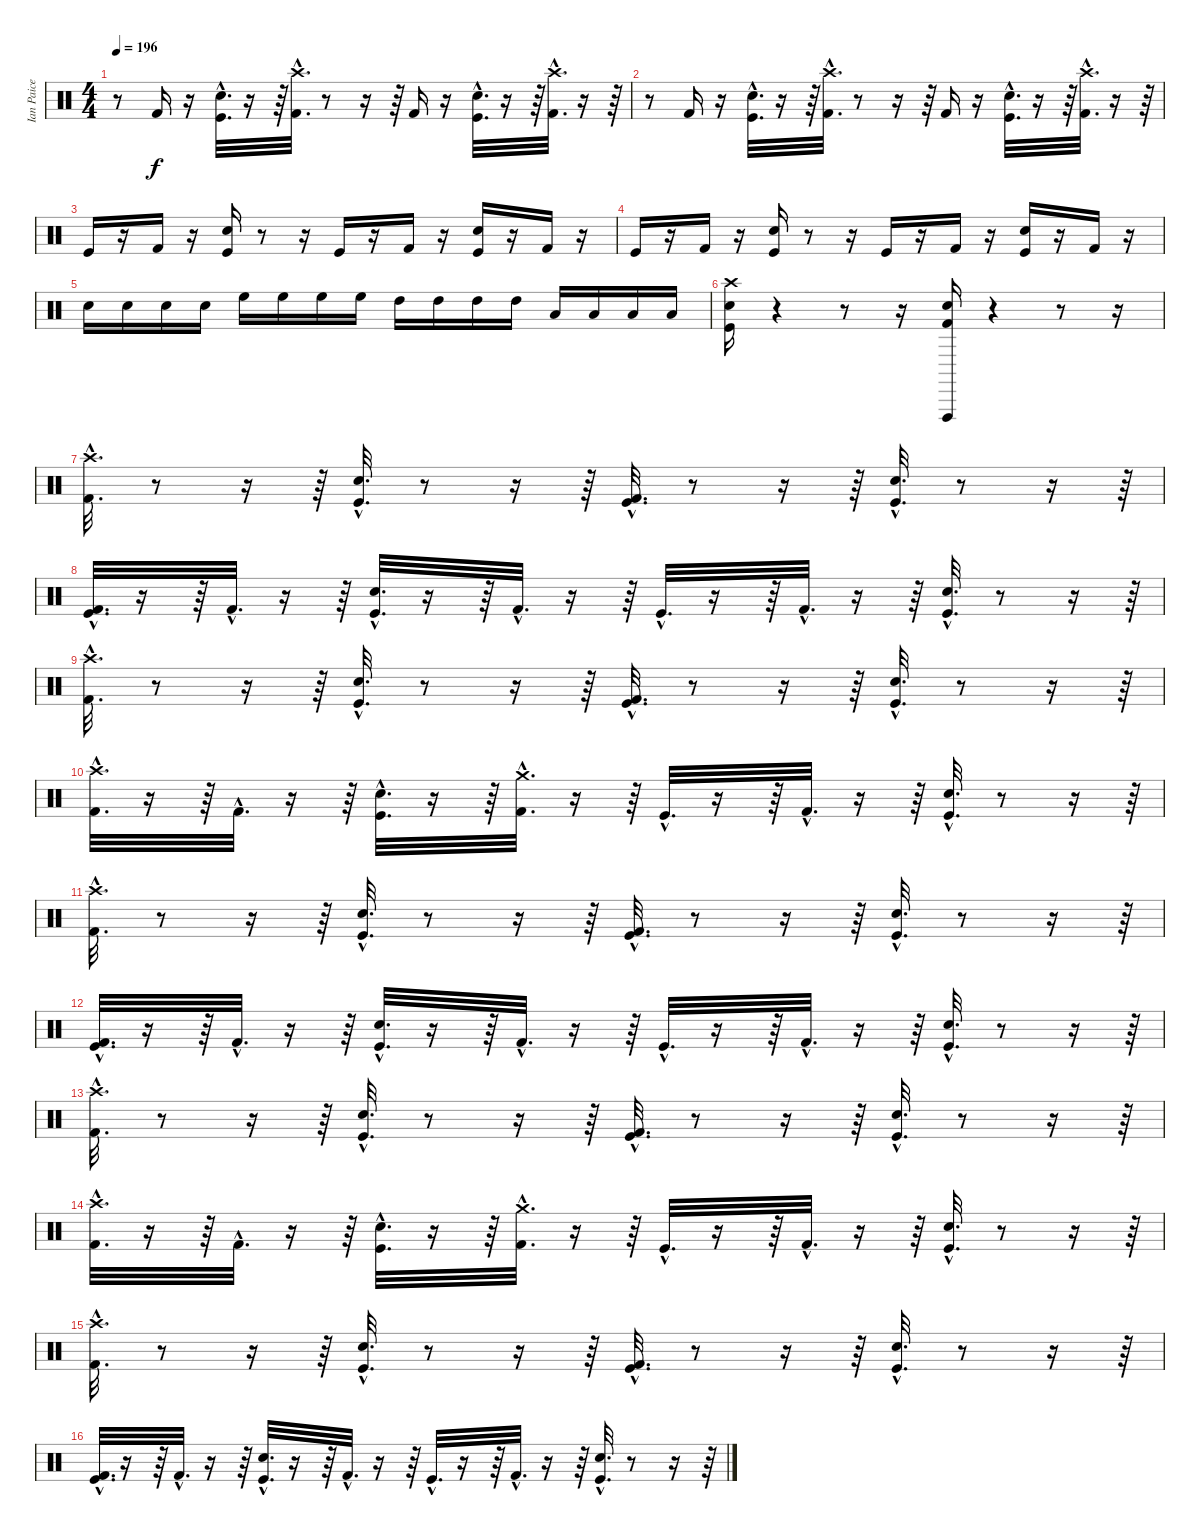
\track ("Ian Paice" "Ian Paice") {instrument percussion}
\staff {score}
\articulation defaults
\ts (4 4)
\tempo 196
\clef neutral
\ks c
r.8{dy f} "Kick (hit) 2".16 r.16 ("Kick (hit)"{hac} "Snare (hit) 2"{hac}).32{d} r.16 r.64 ("Kick (hit) 2"{hac} "Crash high (hit)"{hac}).32{d} r.8 r.16 r.64 "Kick (hit) 2".16 r.16 ("Kick (hit)"{hac} "Snare (hit) 2"{hac}).32{d} r.16 r.64 ("Kick (hit) 2"{hac} "Crash high (hit)"{hac}).32{d} r.16 r.64 |
r.8 "Kick (hit) 2".16 r.16 ("Kick (hit)"{hac} "Snare (hit) 2"{hac}).32{d} r.16 r.64 ("Kick (hit) 2"{hac} "Crash high (hit)"{hac}).32{d} r.8 r.16 r.64 "Kick (hit) 2".16 r.16 ("Kick (hit)"{hac} "Snare (hit) 2"{hac}).32{d} r.16 r.64 ("Kick (hit) 2"{hac} "Crash high (hit)"{hac}).32{d} r.16 r.64 |
"Kick (hit)".16 r.16 "Kick (hit) 2".16 r.16 ("Kick (hit)" "Snare (hit) 2").16 r.8 r.16 "Kick (hit)".16 r.16 "Kick (hit) 2".16 r.16 ("Kick (hit)" "Snare (hit) 2").16 r.16 "Kick (hit) 2".16 r.16 |
"Kick (hit)".16 r.16 "Kick (hit) 2".16 r.16 ("Kick (hit)" "Snare (hit) 2").16 r.8 r.16 "Kick (hit)".16 r.16 "Kick (hit) 2".16 r.16 ("Kick (hit)" "Snare (hit) 2").16 r.16 "Kick (hit) 2".16 r.16 |
"Snare (hit) 2".16 "Snare (hit) 2".16 "Snare (hit) 2".16 "Snare (hit) 2".16 "High Floor Tom (hit)".16 "High Floor Tom (hit)".16 "High Floor Tom (hit)".16 "High Floor Tom (hit)".16 "High Tom (hit)".16 "High Tom (hit)".16 "High Tom (hit)".16 "High Tom (hit)".16 "Low Tom (hit)".16 "Low Tom (hit)".16 "Low Tom (hit)".16 "Low Tom (hit)".16 |
("Crash high (hit)" "Kick (hit)" "Snare (hit) 2").16 r.4 r.8 r.16 ("Vibraslap (hit)" "Kick (hit) 2" "Snare (hit) 2").16 r.4 r.8 r.16 |
("Kick (hit) 2"{hac} "Crash high (hit)"{hac}).32{d} r.8 r.16 r.64 ("Kick (hit)"{hac} "Snare (hit) 2"{hac}).32{d} r.8 r.16 r.64 ("Kick (hit)"{hac} "Kick (hit) 2"{hac}).32{d} r.8 r.16 r.64 ("Kick (hit)"{hac} "Snare (hit) 2"{hac}).32{d} r.8 r.16 r.64 |
("Kick (hit)"{hac} "Kick (hit) 2"{hac}).32{d} r.16 r.64 "Kick (hit) 2"{hac}.32{d} r.16 r.64 ("Snare (hit) 2"{hac} "Kick (hit)"{hac}).32{d} r.16 r.64 "Kick (hit) 2"{hac}.32{d} r.16 r.64 "Kick (hit)"{hac}.32{d} r.16 r.64 "Kick (hit) 2"{hac}.32{d} r.16 r.64 ("Snare (hit) 2"{hac} "Kick (hit)"{hac}).32{d} r.8 r.16 r.64 |
("Kick (hit) 2"{hac} "Crash high (hit)"{hac}).32{d} r.8 r.16 r.64 ("Kick (hit)"{hac} "Snare (hit) 2"{hac}).32{d} r.8 r.16 r.64 ("Kick (hit)"{hac} "Kick (hit) 2"{hac}).32{d} r.8 r.16 r.64 ("Kick (hit)"{hac} "Snare (hit) 2"{hac}).32{d} r.8 r.16 r.64 |
("Crash high (hit)"{hac} "Kick (hit) 2"{hac}).32{d} r.16 r.64 "Kick (hit) 2"{hac}.32{d} r.16 r.64 ("Kick (hit)"{hac} "Snare (hit) 2"{hac}).32{d} r.16 r.64 ("Crash medium (hit)"{hac} "Kick (hit) 2"{hac}).32{d} r.16 r.64 "Kick (hit)"{hac}.32{d} r.16 r.64 "Kick (hit) 2"{hac}.32{d} r.16 r.64 ("Kick (hit)"{hac} "Snare (hit) 2"{hac}).32{d} r.8 r.16 r.64 |
("Kick (hit) 2"{hac} "Crash high (hit)"{hac}).32{d} r.8 r.16 r.64 ("Kick (hit)"{hac} "Snare (hit) 2"{hac}).32{d} r.8 r.16 r.64 ("Kick (hit)"{hac} "Kick (hit) 2"{hac}).32{d} r.8 r.16 r.64 ("Kick (hit)"{hac} "Snare (hit) 2"{hac}).32{d} r.8 r.16 r.64 |
("Kick (hit)"{hac} "Kick (hit) 2"{hac}).32{d} r.16 r.64 "Kick (hit) 2"{hac}.32{d} r.16 r.64 ("Snare (hit) 2"{hac} "Kick (hit)"{hac}).32{d} r.16 r.64 "Kick (hit) 2"{hac}.32{d} r.16 r.64 "Kick (hit)"{hac}.32{d} r.16 r.64 "Kick (hit) 2"{hac}.32{d} r.16 r.64 ("Snare (hit) 2"{hac} "Kick (hit)"{hac}).32{d} r.8 r.16 r.64 |
("Kick (hit) 2"{hac} "Crash high (hit)"{hac}).32{d} r.8 r.16 r.64 ("Kick (hit)"{hac} "Snare (hit) 2"{hac}).32{d} r.8 r.16 r.64 ("Kick (hit)"{hac} "Kick (hit) 2"{hac}).32{d} r.8 r.16 r.64 ("Kick (hit)"{hac} "Snare (hit) 2"{hac}).32{d} r.8 r.16 r.64 |
("Crash high (hit)"{hac} "Kick (hit) 2"{hac}).32{d} r.16 r.64 "Kick (hit) 2"{hac}.32{d} r.16 r.64 ("Kick (hit)"{hac} "Snare (hit) 2"{hac}).32{d} r.16 r.64 ("Crash medium (hit)"{hac} "Kick (hit) 2"{hac}).32{d} r.16 r.64 "Kick (hit)"{hac}.32{d} r.16 r.64 "Kick (hit) 2"{hac}.32{d} r.16 r.64 ("Kick (hit)"{hac} "Snare (hit) 2"{hac}).32{d} r.8 r.16 r.64 |
("Kick (hit) 2"{hac} "Crash high (hit)"{hac}).32{d} r.8 r.16 r.64 ("Kick (hit)"{hac} "Snare (hit) 2"{hac}).32{d} r.8 r.16 r.64 ("Kick (hit)"{hac} "Kick (hit) 2"{hac}).32{d} r.8 r.16 r.64 ("Kick (hit)"{hac} "Snare (hit) 2"{hac}).32{d} r.8 r.16 r.64 |
("Kick (hit)"{hac} "Kick (hit) 2"{hac}).32{d} r.16 r.64 "Kick (hit) 2"{hac}.32{d} r.16 r.64 ("Snare (hit) 2"{hac} "Kick (hit)"{hac}).32{d} r.16 r.64 "Kick (hit) 2"{hac}.32{d} r.16 r.64 "Kick (hit)"{hac}.32{d} r.16 r.64 "Kick (hit) 2"{hac}.32{d} r.16 r.64 ("Snare (hit) 2"{hac} "Kick (hit)"{hac}).32{d} r.8 r.16 r.64
